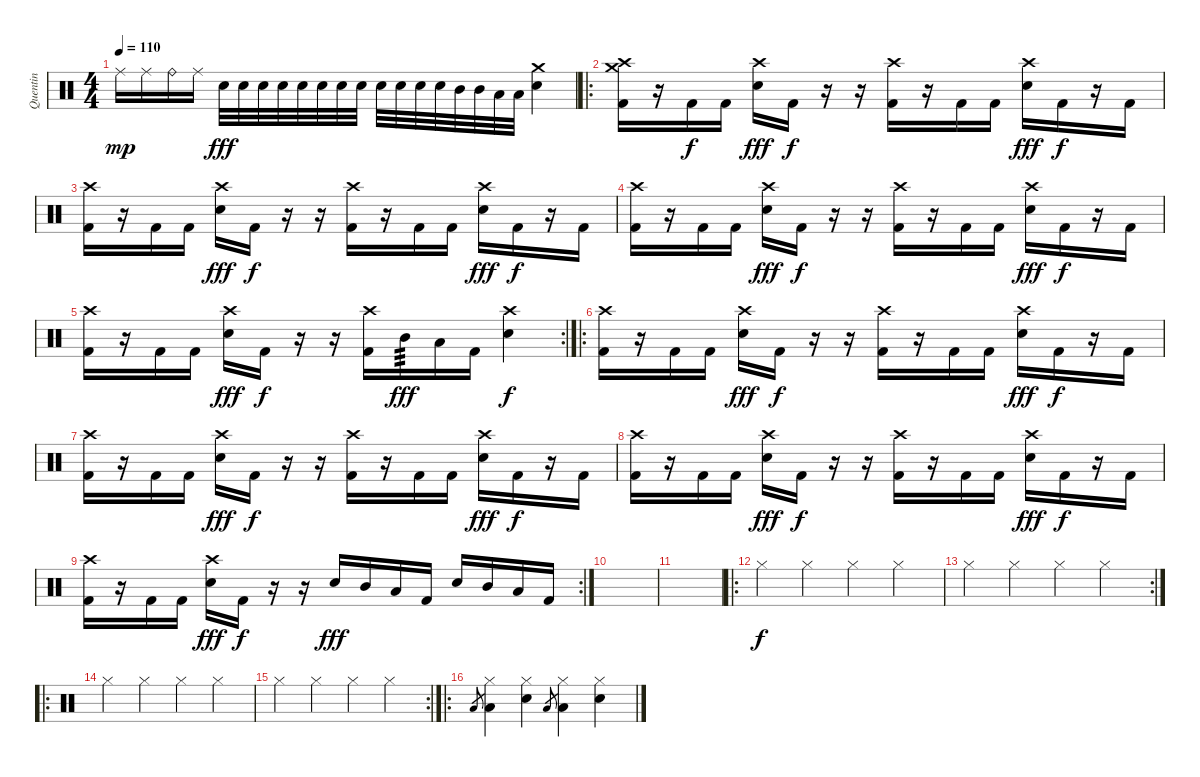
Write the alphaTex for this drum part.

\track ("Quentin" "Quentin") {instrument percussion}
\staff {score}
\articulation defaults
\ts (4 4)
\tempo 110
\clef neutral
\ks c "Ride (middle)".16{dy mp} "Ride (middle)".16 "Ride (bell)".16 "Ride (middle)".16 "Electric Snare (hit)".32{dy fff volume 10} "Electric Snare (hit)".32 "Electric Snare (hit)".32 "Electric Snare (hit)".32 "Electric Snare (hit)".32 "Electric Snare (hit)".32 "Electric Snare (hit)".32 "Electric Snare (hit)".32 "Electric Snare (hit)".32 "Electric Snare (hit)".32 "Electric Snare (hit)".32 "Electric Snare (hit)".32 "Mid Tom (hit)".32 "Mid Tom (hit)".32 "Low Tom (hit)".32 "Low Tom (hit)".32
("Crash medium (hit)" "Electric Snare (hit)").4 |
\ro
("Crash medium (hit)" "Crash high (hit)" "Kick (hit) 2").16{volume 11} r.16 "Kick (hit) 2".16{dy f} "Kick (hit) 2".16 ("Crash high (hit)" "Electric Snare (hit)").16{dy fff} "Kick (hit) 2".16{dy f} r.16 r.16 ("Crash high (hit)" "Kick (hit) 2").16 r.16 "Kick (hit) 2".16 "Kick (hit) 2".16 ("Crash high (hit)" "Electric Snare (hit)").16{dy fff} "Kick (hit) 2".16{dy f} r.16 "Kick (hit) 2".16 |
("Crash high (hit)" "Kick (hit) 2").16 r.16 "Kick (hit) 2".16 "Kick (hit) 2".16 ("Crash high (hit)" "Electric Snare (hit)").16{dy fff} "Kick (hit) 2".16{dy f} r.16 r.16 ("Crash high (hit)" "Kick (hit) 2").16 r.16 "Kick (hit) 2".16 "Kick (hit) 2".16 ("Crash high (hit)" "Electric Snare (hit)").16{dy fff} "Kick (hit) 2".16{dy f} r.16 "Kick (hit) 2".16 |
("Crash high (hit)" "Kick (hit) 2").16 r.16 "Kick (hit) 2".16 "Kick (hit) 2".16 ("Crash high (hit)" "Electric Snare (hit)").16{dy fff} "Kick (hit) 2".16{dy f} r.16 r.16 ("Crash high (hit)" "Kick (hit) 2").16 r.16 "Kick (hit) 2".16 "Kick (hit) 2".16 ("Crash high (hit)" "Electric Snare (hit)").16{dy fff} "Kick (hit) 2".16{dy f} r.16 "Kick (hit) 2".16 |
\rc 2
("Crash high (hit)" "Kick (hit) 2").16 r.16 "Kick (hit) 2".16 "Kick (hit) 2".16 ("Crash high (hit)" "Electric Snare (hit)").16{dy fff} "Kick (hit) 2".16{dy f} r.16 r.16 ("Crash high (hit)" "Kick (hit) 2").16 "Mid Tom (hit)".16{tp 3 dy fff} "Low Tom (hit)".16 "Kick (hit) 2".16 ("Crash high (hit)" "Electric Snare (hit)").4{dy f} |
\ro
("Crash high (hit)" "Kick (hit) 2").16 r.16 "Kick (hit) 2".16 "Kick (hit) 2".16 ("Crash high (hit)" "Electric Snare (hit)").16{dy fff} "Kick (hit) 2".16{dy f} r.16 r.16 ("Crash high (hit)" "Kick (hit) 2").16 r.16 "Kick (hit) 2".16 "Kick (hit) 2".16 ("Crash high (hit)" "Electric Snare (hit)").16{dy fff} "Kick (hit) 2".16{dy f} r.16 "Kick (hit) 2".16 |
("Crash high (hit)" "Kick (hit) 2").16 r.16 "Kick (hit) 2".16 "Kick (hit) 2".16 ("Crash high (hit)" "Electric Snare (hit)").16{dy fff} "Kick (hit) 2".16{dy f} r.16 r.16 ("Crash high (hit)" "Kick (hit) 2").16 r.16 "Kick (hit) 2".16 "Kick (hit) 2".16 ("Crash high (hit)" "Electric Snare (hit)").16{dy fff} "Kick (hit) 2".16{dy f} r.16 "Kick (hit) 2".16 |
("Crash high (hit)" "Kick (hit) 2").16 r.16 "Kick (hit) 2".16 "Kick (hit) 2".16 ("Crash high (hit)" "Electric Snare (hit)").16{dy fff} "Kick (hit) 2".16{dy f} r.16 r.16 ("Crash high (hit)" "Kick (hit) 2").16 r.16 "Kick (hit) 2".16 "Kick (hit) 2".16 ("Crash high (hit)" "Electric Snare (hit)").16{dy fff} "Kick (hit) 2".16{dy f} r.16 "Kick (hit) 2".16 |
\rc 2
("Crash high (hit)" "Kick (hit) 2").16 r.16 "Kick (hit) 2".16 "Kick (hit) 2".16 ("Crash high (hit)" "Electric Snare (hit)").16{dy fff} "Kick (hit) 2".16{dy f} r.16 r.16 "Electric Snare (hit)".16{dy fff} "Mid Tom (hit)".16 "Low Tom (hit)".16 "Kick (hit) 2".16 "Electric Snare (hit)".16 "Mid Tom (hit)".16 "Low Tom (hit)".16 "Kick (hit) 2".16 |
|
|
\ro "Hi-Hat (closed)".4{dy f} "Hi-Hat (closed)".4 "Hi-Hat (closed)".4 "Hi-Hat (closed)".4
|
\rc 2 "Hi-Hat (closed)".4 "Hi-Hat (closed)".4 "Hi-Hat (closed)".4 "Hi-Hat (closed)".4
|
\ro "Hi-Hat (closed)".4 "Hi-Hat (closed)".4 "Hi-Hat (closed)".4 "Hi-Hat (closed)".4
|
\rc 2 "Hi-Hat (closed)".4 "Hi-Hat (closed)".4 "Hi-Hat (closed)".4 "Hi-Hat (closed)".4
|
\ro "Low Tom (hit)".8{gr}
("Hi-Hat (closed)" "Low Tom (hit)").4 ("Hi-Hat (closed)" "Electric Snare (hit)").4 "Low Tom (hit)".8{gr} ("Hi-Hat (closed)" "Low Tom (hit)").4 ("Hi-Hat (closed)" "Electric Snare (hit)").4
